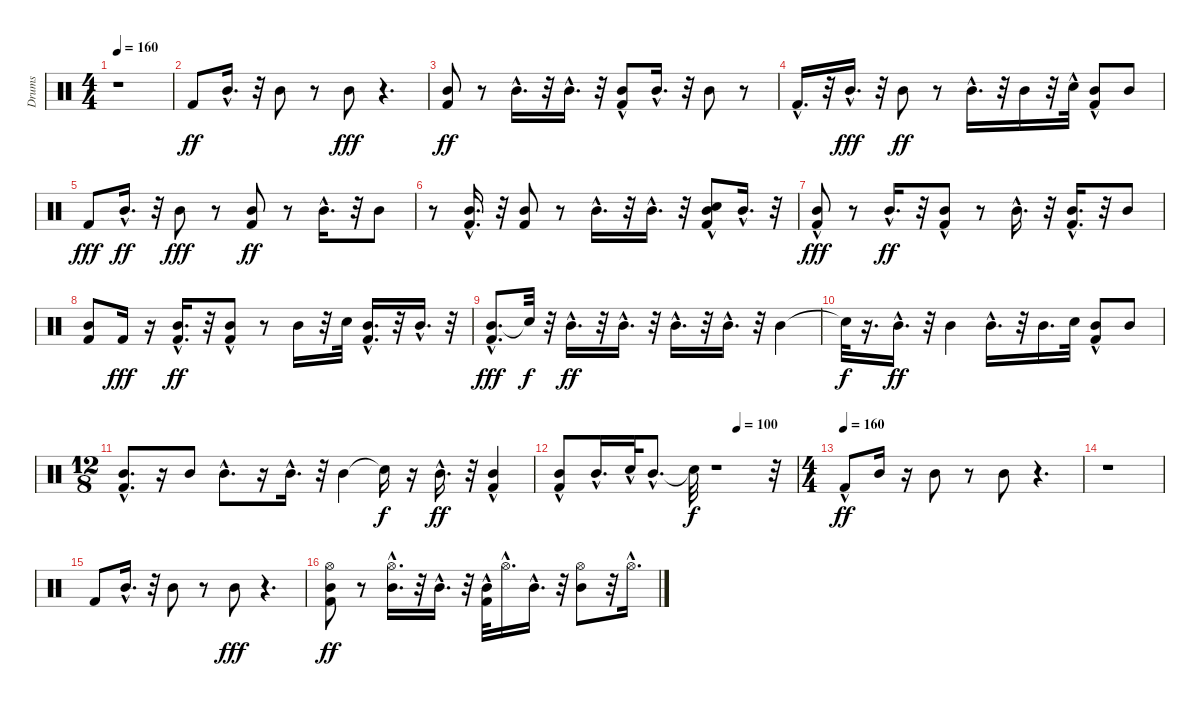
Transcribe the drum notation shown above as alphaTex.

\track ("Drums" "Drums") {instrument percussion}
\staff {score}
\articulation defaults
\ts (4 4)
\tempo 160
\clef neutral
\ks c
r.1{dy ff} |
"Kick (hit) 2".8 "Mid Tom (hit)"{hac}.16{d} r.32 "Mid Tom (hit)".8 r.8 "Mid Tom (hit)".8{dy fff} r.4{d} |
("Mid Tom (hit)" "Kick (hit) 2").8{dy ff} r.8 "Mid Tom (hit)"{hac}.16{d} r.32 "Mid Tom (hit)"{hac}.16{d} r.32 ("Mid Tom (hit)"{hac} "Kick (hit) 2").8 "Mid Tom (hit)"{hac}.16{d} r.32 "Mid Tom (hit)".8 r.8 |
"Kick (hit) 2"{hac}.16{d} r.32 "Mid Tom (hit)"{hac}.16{d dy fff} r.32 "Mid Tom (hit)".8{dy ff} r.8 "Mid Tom (hit)"{hac}.16{d} r.32 "Mid Tom (hit)".16 r.32 "Snare (hit) 2"{hac}.32 ("Kick (hit) 2"{hac} "Mid Tom (hit)").8 "Mid Tom (hit)".8 |
"Kick (hit) 2".8{dy fff} "Mid Tom (hit)"{hac}.16{d dy ff} r.32 "Mid Tom (hit)".8{dy fff} r.8 ("Mid Tom (hit)" "Kick (hit) 2").8{dy ff} r.8 "Mid Tom (hit)"{hac}.16{d} r.32 "Mid Tom (hit)".8 |
r.8 ("Kick (hit) 2" "Mid Tom (hit)"{hac}).16{d} r.32 ("Kick (hit) 2" "Mid Tom (hit)").8 r.8 "Mid Tom (hit)"{hac}.16{d} r.32 "Mid Tom (hit)"{hac}.16{d} r.32 ("Snare (hit) 2"{hac} "Mid Tom (hit)"{hac} "Kick (hit) 2"{hac}).8 "Mid Tom (hit)"{hac}.16{d} r.32 |
("Kick (hit) 2"{hac} "Mid Tom (hit)").8{dy fff} r.8 "Mid Tom (hit)"{hac}.16{d dy ff} r.32 ("Mid Tom (hit)" "Kick (hit) 2"{hac}).8 r.8 "Mid Tom (hit)"{hac}.16{d} r.32 ("Mid Tom (hit)"{hac} "Kick (hit) 2").16{d} r.32 "Mid Tom (hit)".8 |
("Mid Tom (hit)" "Kick (hit) 2").8 "Kick (hit) 2".16{dy fff} r.16 ("Mid Tom (hit)"{hac} "Kick (hit) 2").16{d dy ff} r.32 ("Mid Tom (hit)" "Kick (hit) 2"{hac}).8 r.8 "Mid Tom (hit)".16 r.32 "Snare (hit) 2".32 ("Mid Tom (hit)"{hac} "Kick (hit) 2"{hac}).16{d} r.32 "Mid Tom (hit)"{hac}.16{d} r.32 |
("Mid Tom (hit)"{hac} "Kick (hit) 2"{hac}).8{d dy fff} "Snare (hit)"{t}.32{dy f} r.32 "Mid Tom (hit)"{hac}.16{d dy ff} r.32 "Mid Tom (hit)"{hac}.16{d} r.32 "Mid Tom (hit)"{hac}.16{d} r.32 "Mid Tom (hit)"{hac}.16{d} r.32 "Mid Tom (hit)".4 |
"Snare (hit)"{t}.32{dy f} r.16{d} "Mid Tom (hit)"{hac}.16{d dy ff} r.32 "Mid Tom (hit)".4 "Mid Tom (hit)"{hac}.16{d} r.32 "Mid Tom (hit)".16{d} "Snare (hit) 2".32 ("Kick (hit) 2"{hac} "Mid Tom (hit)").8 "Mid Tom (hit)".8 |
\ts (12 8)
("Kick (hit) 2"{hac} "Mid Tom (hit)"{hac}).8{d} r.16 "Mid Tom (hit)".8 "Mid Tom (hit)"{hac}.8{d} r.16 "Mid Tom (hit)"{hac}.16{d} r.32 "Mid Tom (hit)".4 "Snare (hit)"{t}.16{dy f} r.16 "Mid Tom (hit)"{hac}.16{d dy ff} r.32 ("Mid Tom (hit)" "Kick (hit) 2"{hac}).4 |
\tempo (100 0.75)
("Mid Tom (hit)" "Kick (hit) 2"{hac}).8 "Mid Tom (hit)"{hac}.16{d} "Snare (hit) 2"{hac}.32 "Mid Tom (hit)"{hac}.8{d} "Snare (hit)"{t}.32{dy f} r.1 r.32 |
\ts (4 4)
\tempo (160)
"Kick (hit) 2"{hac}.8{dy ff} "Mid Tom (hit)".16 r.16 "Mid Tom (hit)".8 r.8 "Mid Tom (hit)".8 r.4{d} |
r.1 |
"Kick (hit) 2".8 "Mid Tom (hit)"{hac}.16{d} r.32 "Mid Tom (hit)".8 r.8 "Mid Tom (hit)".8{dy fff} r.4{d} |
("Mid Tom (hit)" "Kick (hit) 2" "Hi-Hat (open)").8{dy ff} r.8 ("Mid Tom (hit)"{hac} "Hi-Hat (open)"{hac}).16{d} r.32 "Mid Tom (hit)"{hac}.16{d} r.32 ("Mid Tom (hit)"{hac} "Kick (hit) 2").32 "Hi-Hat (open)"{hac}.16{d} "Mid Tom (hit)"{hac}.16{d} r.32 ("Mid Tom (hit)" "Hi-Hat (open)").8 r.32 "Hi-Hat (open)"{hac}.16{d}
